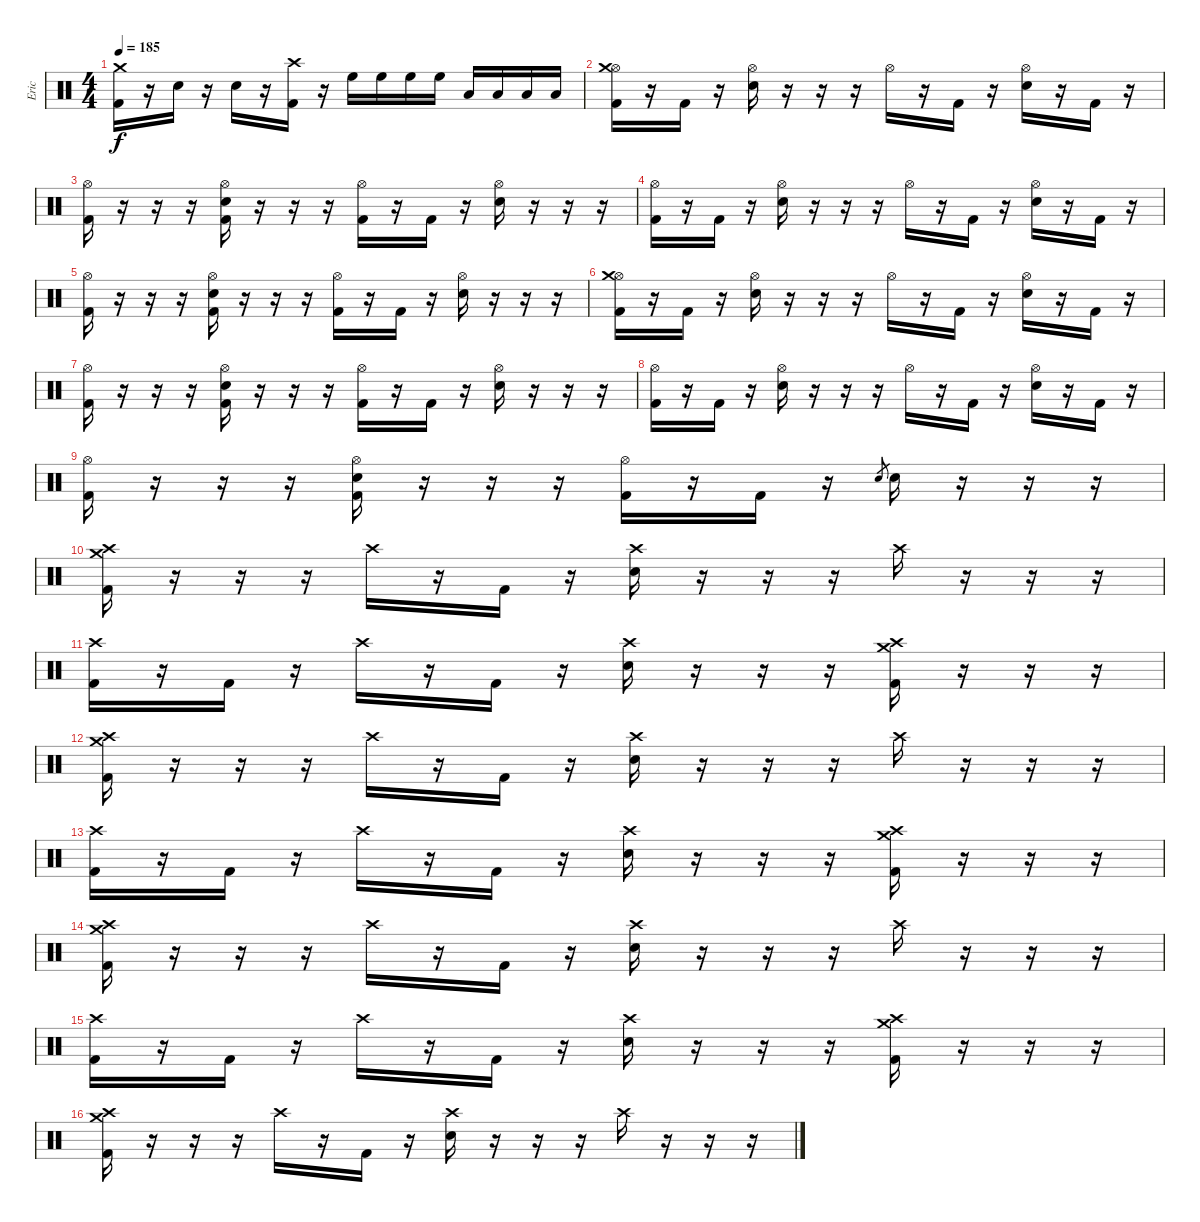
\track ("Eric" "Eric") {instrument percussion}
\staff {score}
\articulation defaults
\ts (4 4)
\tempo 185
\clef neutral
\ks c
("Crash medium (hit)" "Kick (hit) 2").16{dy f} r.16 "Electric Snare (hit)".16 r.16 "Electric Snare (hit)".16 r.16 ("Crash high (hit)" "Kick (hit) 2").16 r.16 "High Floor Tom (hit)".16 "High Floor Tom (hit)".16 "High Floor Tom (hit)".16 "High Floor Tom (hit)".16 "Low Tom (hit)".16 "Low Tom (hit)".16 "Low Tom (hit)".16 "Low Tom (hit)".16 |
("Hi-Hat (open)" "Crash medium (hit)" "Kick (hit) 2").16 r.16 "Kick (hit) 2".16 r.16 ("Hi-Hat (open)" "Electric Snare (hit)").16 r.16 r.16 r.16 "Hi-Hat (open)".16 r.16 "Kick (hit) 2".16 r.16 ("Hi-Hat (open)" "Electric Snare (hit)").16 r.16 "Kick (hit) 2".16 r.16 |
("Hi-Hat (open)" "Kick (hit) 2").16 r.16 r.16 r.16 ("Hi-Hat (open)" "Electric Snare (hit)" "Kick (hit) 2").16 r.16 r.16 r.16 ("Hi-Hat (open)" "Kick (hit) 2").16 r.16 "Kick (hit) 2".16 r.16 ("Hi-Hat (open)" "Electric Snare (hit)").16 r.16 r.16 r.16 |
("Hi-Hat (open)" "Kick (hit) 2").16 r.16 "Kick (hit) 2".16 r.16 ("Hi-Hat (open)" "Electric Snare (hit)").16 r.16 r.16 r.16 "Hi-Hat (open)".16 r.16 "Kick (hit) 2".16 r.16 ("Hi-Hat (open)" "Electric Snare (hit)").16 r.16 "Kick (hit) 2".16 r.16 |
("Hi-Hat (open)" "Kick (hit) 2").16 r.16 r.16 r.16 ("Hi-Hat (open)" "Electric Snare (hit)" "Kick (hit) 2").16 r.16 r.16 r.16 ("Hi-Hat (open)" "Kick (hit) 2").16 r.16 "Kick (hit) 2".16 r.16 ("Hi-Hat (open)" "Electric Snare (hit)").16 r.16 r.16 r.16 |
("Hi-Hat (open)" "Crash medium (hit)" "Kick (hit) 2").16 r.16 "Kick (hit) 2".16 r.16 ("Hi-Hat (open)" "Electric Snare (hit)").16 r.16 r.16 r.16 "Hi-Hat (open)".16 r.16 "Kick (hit) 2".16 r.16 ("Hi-Hat (open)" "Electric Snare (hit)").16 r.16 "Kick (hit) 2".16 r.16 |
("Hi-Hat (open)" "Kick (hit) 2").16 r.16 r.16 r.16 ("Hi-Hat (open)" "Electric Snare (hit)" "Kick (hit) 2").16 r.16 r.16 r.16 ("Hi-Hat (open)" "Kick (hit) 2").16 r.16 "Kick (hit) 2".16 r.16 ("Hi-Hat (open)" "Electric Snare (hit)").16 r.16 r.16 r.16 |
("Hi-Hat (open)" "Kick (hit) 2").16 r.16 "Kick (hit) 2".16 r.16 ("Hi-Hat (open)" "Electric Snare (hit)").16 r.16 r.16 r.16 "Hi-Hat (open)".16 r.16 "Kick (hit) 2".16 r.16 ("Hi-Hat (open)" "Electric Snare (hit)").16 r.16 "Kick (hit) 2".16 r.16 |
("Hi-Hat (open)" "Kick (hit) 2").16 r.16 r.16 r.16 ("Hi-Hat (open)" "Electric Snare (hit)" "Kick (hit) 2").16 r.16 r.16 r.16 ("Hi-Hat (open)" "Kick (hit) 2").16 r.16 "Kick (hit) 2".16 r.16 "Electric Snare (hit)".8{gr} "Electric Snare (hit)".16 r.16 r.16 r.16 |
("Crash high (hit)" "Crash medium (hit)" "Kick (hit) 2").16 r.16 r.16 r.16 "Crash high (hit)".16 r.16 "Kick (hit) 2".16 r.16 ("Crash high (hit)" "Electric Snare (hit)").16 r.16 r.16 r.16 "Crash high (hit)".16 r.16 r.16 r.16 |
("Crash high (hit)" "Kick (hit) 2").16 r.16 "Kick (hit) 2".16 r.16 "Crash high (hit)".16 r.16 "Kick (hit) 2".16 r.16 ("Crash high (hit)" "Electric Snare (hit)").16 r.16 r.16 r.16 ("Crash medium (hit)" "Crash high (hit)" "Kick (hit) 2").16 r.16 r.16 r.16 |
("Crash high (hit)" "Crash medium (hit)" "Kick (hit) 2").16 r.16 r.16 r.16 "Crash high (hit)".16 r.16 "Kick (hit) 2".16 r.16 ("Crash high (hit)" "Electric Snare (hit)").16 r.16 r.16 r.16 "Crash high (hit)".16 r.16 r.16 r.16 |
("Crash high (hit)" "Kick (hit) 2").16 r.16 "Kick (hit) 2".16 r.16 "Crash high (hit)".16 r.16 "Kick (hit) 2".16 r.16 ("Crash high (hit)" "Electric Snare (hit)").16 r.16 r.16 r.16 ("Crash medium (hit)" "Crash high (hit)" "Kick (hit) 2").16 r.16 r.16 r.16 |
("Crash high (hit)" "Crash medium (hit)" "Kick (hit) 2").16 r.16 r.16 r.16 "Crash high (hit)".16 r.16 "Kick (hit) 2".16 r.16 ("Crash high (hit)" "Electric Snare (hit)").16 r.16 r.16 r.16 "Crash high (hit)".16 r.16 r.16 r.16 |
("Crash high (hit)" "Kick (hit) 2").16 r.16 "Kick (hit) 2".16 r.16 "Crash high (hit)".16 r.16 "Kick (hit) 2".16 r.16 ("Crash high (hit)" "Electric Snare (hit)").16 r.16 r.16 r.16 ("Crash medium (hit)" "Crash high (hit)" "Kick (hit) 2").16 r.16 r.16 r.16 |
("Crash high (hit)" "Crash medium (hit)" "Kick (hit) 2").16 r.16 r.16 r.16 "Crash high (hit)".16 r.16 "Kick (hit) 2".16 r.16 ("Crash high (hit)" "Electric Snare (hit)").16 r.16 r.16 r.16 "Crash high (hit)".16 r.16 r.16 r.16
